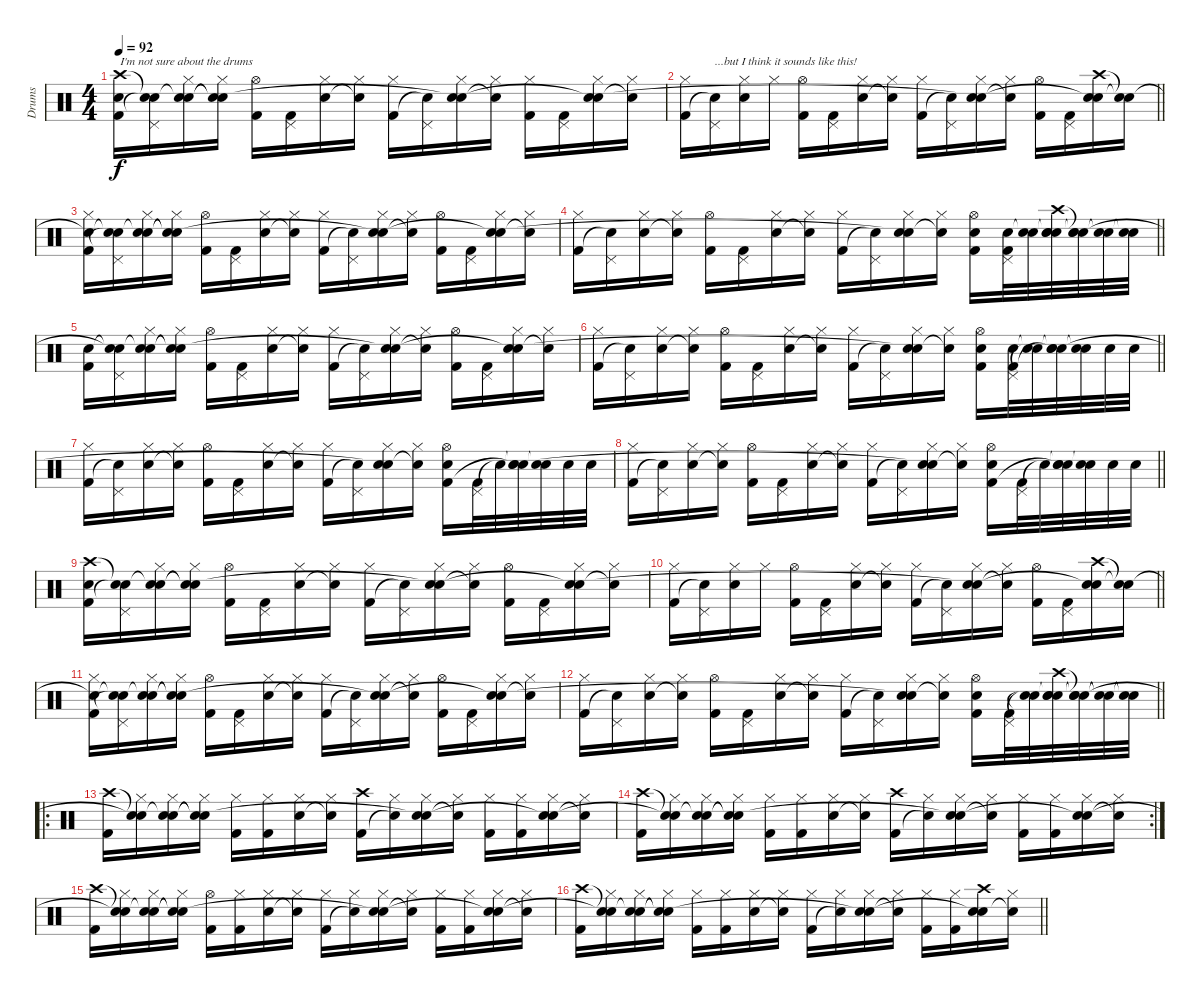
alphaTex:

\track ("Drums" "Drums") {instrument percussion}
\staff {score}
\articulation defaults
\ts (4 4)
\tempo 92
\clef neutral
\ks c
("Crash high (hit)" "Electric Snare (hit)" "Kick (hit) 2").16{txt "I'm not sure about the drums" dy f} ("Snare (hit)"{t} "Pedal Hi-Hat (hit)" "Snare (hit)"{t}).16 ("Snare (hit)"{t} "Hi-Hat (closed)" "Electric Snare (hit)").16 ("Snare (hit)"{t} "Hi-Hat (closed)" "Snare (hit)"{t}).16 ("Hi-Hat (open)" "Kick (hit) 2").16 ("Pedal Hi-Hat (hit)" "Kick (hit) 2").16 ("Hi-Hat (closed)" "Electric Snare (hit)").16 ("Hi-Hat (closed)" "Snare (hit)"{t}).16 ("Hi-Hat (closed)" "Kick (hit) 2").16 ("Pedal Hi-Hat (hit)" "Snare (hit)"{t}).16 ("Hi-Hat (closed)" "Electric Snare (hit)" "Snare (hit)"{t}).16 ("Hi-Hat (closed)" "Snare (hit)"{t}).16 ("Hi-Hat (closed)" "Kick (hit) 2").16 ("Pedal Hi-Hat (hit)" "Kick (hit) 2").16 ("Hi-Hat (closed)" "Electric Snare (hit)" "Snare (hit)"{t}).16 ("Hi-Hat (closed)" "Snare (hit)"{t}).16 |
\barLineRight lightlight
("Hi-Hat (closed)" "Kick (hit) 2").16 ("Pedal Hi-Hat (hit)" "Snare (hit)"{t}).16{txt "...but I think it sounds like this!"} ("Hi-Hat (closed)" "Electric Snare (hit)").16 "Hi-Hat (closed)".16 ("Hi-Hat (open)" "Kick (hit) 2").16 ("Pedal Hi-Hat (hit)" "Kick (hit) 2").16 ("Hi-Hat (closed)" "Electric Snare (hit)").16 ("Hi-Hat (closed)" "Snare (hit)"{t}).16 ("Hi-Hat (closed)" "Kick (hit) 2").16 ("Pedal Hi-Hat (hit)" "Snare (hit)"{t}).16 ("Hi-Hat (closed)" "Electric Snare (hit)" "Snare (hit)"{t}).16 ("Hi-Hat (closed)" "Snare (hit)"{t}).16 ("Hi-Hat (open)" "Kick (hit) 2").16 ("Pedal Hi-Hat (hit)" "Kick (hit) 2").16 ("Crash high (hit)" "Electric Snare (hit)" "Snare (hit)"{t}).16 ("Snare (hit)"{t} "Snare (hit)"{t}).16 |
("Snare (hit)"{t} "Hi-Hat (closed)" "Kick (hit) 2").16 ("Snare (hit)"{t} "Pedal Hi-Hat (hit)" "Snare (hit)"{t}).16 ("Snare (hit)"{t} "Hi-Hat (closed)" "Electric Snare (hit)").16 ("Snare (hit)"{t} "Hi-Hat (closed)" "Snare (hit)"{t}).16 ("Hi-Hat (open)" "Kick (hit) 2").16 ("Pedal Hi-Hat (hit)" "Kick (hit) 2").16 ("Hi-Hat (closed)" "Electric Snare (hit)").16 ("Hi-Hat (closed)" "Snare (hit)"{t}).16 ("Hi-Hat (closed)" "Kick (hit) 2").16 ("Pedal Hi-Hat (hit)" "Snare (hit)"{t}).16 ("Hi-Hat (closed)" "Electric Snare (hit)" "Snare (hit)"{t}).16 ("Hi-Hat (closed)" "Snare (hit)"{t}).16 ("Hi-Hat (open)" "Kick (hit) 2").16 ("Pedal Hi-Hat (hit)" "Kick (hit) 2").16 ("Hi-Hat (closed)" "Electric Snare (hit)" "Snare (hit)"{t}).16 ("Hi-Hat (closed)" "Snare (hit)"{t}).16 |
\barLineRight lightlight
("Hi-Hat (closed)" "Kick (hit) 2").16 ("Pedal Hi-Hat (hit)" "Snare (hit)"{t}).16 ("Hi-Hat (closed)" "Electric Snare (hit)").16 ("Hi-Hat (closed)" "Snare (hit)"{t}).16 ("Hi-Hat (open)" "Kick (hit) 2").16 ("Pedal Hi-Hat (hit)" "Kick (hit) 2").16 ("Hi-Hat (closed)" "Electric Snare (hit)").16 ("Hi-Hat (closed)" "Snare (hit)"{t}).16 ("Hi-Hat (closed)" "Kick (hit) 2").16 ("Pedal Hi-Hat (hit)" "Snare (hit)"{t}).16 ("Hi-Hat (closed)" "Electric Snare (hit)" "Snare (hit)"{t}).16 ("Hi-Hat (closed)" "Snare (hit)"{t}).16 ("Hi-Hat (open)" "Electric Snare (hit)" "Kick (hit) 2").16 ("Pedal Hi-Hat (hit)" "Electric Snare (hit)" "Kick (hit) 2").32 ("Electric Snare (hit)" "Snare (hit)"{t}).32 ("Crash high (hit)" "Snare (hit)"{t} "Electric Snare (hit)" "Snare (hit)").32 ("Snare (hit)"{t} "Electric Snare (hit)" "Snare (hit)"{t}).32 ("Snare (hit)"{t} "Electric Snare (hit)").32 ("Snare (hit)"{t} "Electric Snare (hit)").32 |
("Electric Snare (hit)" "Kick (hit) 2").16 ("Snare (hit)"{t} "Pedal Hi-Hat (hit)" "Snare (hit)"{t}).16 ("Snare (hit)"{t} "Hi-Hat (closed)" "Electric Snare (hit)").16 ("Snare (hit)"{t} "Hi-Hat (closed)" "Snare (hit)"{t}).16 ("Hi-Hat (open)" "Kick (hit) 2").16 ("Pedal Hi-Hat (hit)" "Kick (hit) 2").16 ("Hi-Hat (closed)" "Electric Snare (hit)").16 ("Hi-Hat (closed)" "Snare (hit)"{t}).16 ("Hi-Hat (closed)" "Kick (hit) 2").16 ("Pedal Hi-Hat (hit)" "Snare (hit)"{t}).16 ("Hi-Hat (closed)" "Electric Snare (hit)" "Snare (hit)"{t}).16 ("Hi-Hat (closed)" "Snare (hit)"{t}).16 ("Hi-Hat (open)" "Kick (hit) 2").16 ("Pedal Hi-Hat (hit)" "Kick (hit) 2").16 ("Hi-Hat (closed)" "Electric Snare (hit)" "Snare (hit)"{t}).16 ("Hi-Hat (closed)" "Snare (hit)"{t}).16 |
\barLineRight lightlight
("Hi-Hat (closed)" "Kick (hit) 2").16 ("Pedal Hi-Hat (hit)" "Snare (hit)"{t}).16 ("Hi-Hat (closed)" "Electric Snare (hit)").16 ("Hi-Hat (closed)" "Snare (hit)"{t}).16 ("Hi-Hat (open)" "Kick (hit) 2").16 ("Pedal Hi-Hat (hit)" "Kick (hit) 2").16 ("Hi-Hat (closed)" "Electric Snare (hit)").16 ("Hi-Hat (closed)" "Snare (hit)"{t}).16 ("Hi-Hat (closed)" "Kick (hit) 2").16 ("Pedal Hi-Hat (hit)" "Snare (hit)"{t}).16 ("Hi-Hat (closed)" "Electric Snare (hit)" "Snare (hit)"{t}).16 ("Hi-Hat (closed)" "Snare (hit)"{t}).16 ("Hi-Hat (open)" "Electric Snare (hit)" "Kick (hit) 2").16 ("Pedal Hi-Hat (hit)" "Electric Snare (hit)" "Kick (hit) 2").32 ("Electric Snare (hit)"{t} "Snare (hit)"{t}).32 ("Snare (hit)"{t} "Electric Snare (hit)" "Snare (hit)"{t}).32 ("Electric Snare (hit)" "Snare (hit)"{t}).32 "Electric Snare (hit)".32 "Electric Snare (hit)".32 |
("Hi-Hat (closed)" "Kick (hit) 2").16 ("Pedal Hi-Hat (hit)" "Snare (hit)"{t}).16 ("Hi-Hat (closed)" "Electric Snare (hit)").16 ("Hi-Hat (closed)" "Snare (hit)"{t}).16 ("Hi-Hat (open)" "Kick (hit) 2").16 ("Pedal Hi-Hat (hit)" "Kick (hit) 2").16 ("Hi-Hat (closed)" "Electric Snare (hit)").16 ("Hi-Hat (closed)" "Snare (hit)"{t}).16 ("Hi-Hat (closed)" "Kick (hit) 2").16 ("Pedal Hi-Hat (hit)" "Snare (hit)"{t}).16 ("Hi-Hat (closed)" "Electric Snare (hit)" "Snare (hit)"{t}).16 ("Hi-Hat (closed)" "Snare (hit)"{t}).16 ("Hi-Hat (open)" "Electric Snare (hit)" "Kick (hit) 2").16 ("Pedal Hi-Hat (hit)" "Kick (hit) 2").32 "Snare (hit)"{t}.32 ("Snare (hit)"{t} "Electric Snare (hit)" "Snare (hit)"{t}).32 ("Electric Snare (hit)" "Snare (hit)"{t}).32 "Electric Snare (hit)".32 "Electric Snare (hit)".32 |
\barLineRight lightlight
("Hi-Hat (closed)" "Kick (hit) 2").16 ("Pedal Hi-Hat (hit)" "Snare (hit)"{t}).16 ("Hi-Hat (closed)" "Electric Snare (hit)").16 ("Hi-Hat (closed)" "Snare (hit)"{t}).16 ("Hi-Hat (open)" "Kick (hit) 2").16 ("Pedal Hi-Hat (hit)" "Kick (hit) 2").16 ("Hi-Hat (closed)" "Electric Snare (hit)").16 ("Hi-Hat (closed)" "Snare (hit)"{t}).16 ("Hi-Hat (closed)" "Kick (hit) 2").16 ("Pedal Hi-Hat (hit)" "Snare (hit)"{t}).16 ("Hi-Hat (closed)" "Electric Snare (hit)" "Snare (hit)"{t}).16 ("Hi-Hat (closed)" "Snare (hit)"{t}).16 ("Hi-Hat (open)" "Electric Snare (hit)" "Kick (hit) 2").16 ("Pedal Hi-Hat (hit)" "Kick (hit) 2").32 "Snare (hit)"{t}.32 ("Snare (hit)"{t} "Electric Snare (hit)" "Snare (hit)"{t}).32 ("Electric Snare (hit)" "Snare (hit)"{t}).32 "Electric Snare (hit)".32 "Electric Snare (hit)".32 |
("Crash high (hit)" "Electric Snare (hit)" "Kick (hit) 2").16 ("Snare (hit)"{t} "Pedal Hi-Hat (hit)" "Snare (hit)"{t}).16 ("Snare (hit)"{t} "Hi-Hat (closed)" "Electric Snare (hit)").16 ("Snare (hit)"{t} "Hi-Hat (closed)" "Snare (hit)"{t}).16 ("Hi-Hat (open)" "Kick (hit) 2").16 ("Pedal Hi-Hat (hit)" "Kick (hit) 2").16 ("Hi-Hat (closed)" "Electric Snare (hit)").16 ("Hi-Hat (closed)" "Snare (hit)"{t}).16 ("Hi-Hat (closed)" "Kick (hit) 2").16 ("Pedal Hi-Hat (hit)" "Snare (hit)"{t}).16 ("Hi-Hat (closed)" "Electric Snare (hit)" "Snare (hit)"{t}).16 ("Hi-Hat (closed)" "Snare (hit)"{t}).16 ("Hi-Hat (open)" "Kick (hit) 2").16 ("Pedal Hi-Hat (hit)" "Kick (hit) 2").16 ("Hi-Hat (closed)" "Electric Snare (hit)" "Snare (hit)"{t}).16 ("Hi-Hat (closed)" "Snare (hit)"{t}).16 |
\barLineRight lightlight
("Hi-Hat (closed)" "Kick (hit) 2").16 ("Pedal Hi-Hat (hit)" "Snare (hit)"{t}).16 ("Hi-Hat (closed)" "Electric Snare (hit)").16 "Hi-Hat (closed)".16 ("Hi-Hat (open)" "Kick (hit) 2").16 ("Pedal Hi-Hat (hit)" "Kick (hit) 2").16 ("Hi-Hat (closed)" "Electric Snare (hit)").16 ("Hi-Hat (closed)" "Snare (hit)"{t}).16 ("Hi-Hat (closed)" "Kick (hit) 2").16 ("Pedal Hi-Hat (hit)" "Snare (hit)"{t}).16 ("Hi-Hat (closed)" "Electric Snare (hit)" "Snare (hit)"{t}).16 ("Hi-Hat (closed)" "Snare (hit)"{t}).16 ("Hi-Hat (open)" "Kick (hit) 2").16 ("Pedal Hi-Hat (hit)" "Kick (hit) 2").16 ("Crash high (hit)" "Electric Snare (hit)" "Snare (hit)"{t}).16 ("Snare (hit)"{t} "Snare (hit)"{t}).16 |
("Snare (hit)"{t} "Hi-Hat (closed)" "Kick (hit) 2").16 ("Snare (hit)"{t} "Pedal Hi-Hat (hit)" "Snare (hit)"{t}).16 ("Snare (hit)"{t} "Hi-Hat (closed)" "Electric Snare (hit)").16 ("Snare (hit)"{t} "Hi-Hat (closed)" "Snare (hit)"{t}).16 ("Hi-Hat (open)" "Kick (hit) 2").16 ("Pedal Hi-Hat (hit)" "Kick (hit) 2").16 ("Hi-Hat (closed)" "Electric Snare (hit)").16 ("Hi-Hat (closed)" "Snare (hit)"{t}).16 ("Hi-Hat (closed)" "Kick (hit) 2").16 ("Pedal Hi-Hat (hit)" "Snare (hit)"{t}).16 ("Hi-Hat (closed)" "Electric Snare (hit)" "Snare (hit)"{t}).16 ("Hi-Hat (closed)" "Snare (hit)"{t}).16 ("Hi-Hat (open)" "Kick (hit) 2").16 ("Pedal Hi-Hat (hit)" "Kick (hit) 2").16 ("Hi-Hat (closed)" "Electric Snare (hit)" "Snare (hit)"{t}).16 ("Hi-Hat (closed)" "Snare (hit)"{t}).16 |
\barLineRight lightlight
("Hi-Hat (closed)" "Kick (hit) 2").16 ("Pedal Hi-Hat (hit)" "Snare (hit)"{t}).16 ("Hi-Hat (closed)" "Electric Snare (hit)").16 ("Hi-Hat (closed)" "Snare (hit)"{t}).16 ("Hi-Hat (open)" "Kick (hit) 2").16 ("Pedal Hi-Hat (hit)" "Kick (hit) 2").16 ("Hi-Hat (closed)" "Electric Snare (hit)").16 ("Hi-Hat (closed)" "Snare (hit)"{t}).16 ("Hi-Hat (closed)" "Kick (hit) 2").16 ("Pedal Hi-Hat (hit)" "Snare (hit)"{t}).16 ("Hi-Hat (closed)" "Electric Snare (hit)" "Snare (hit)"{t}).16 ("Hi-Hat (closed)" "Snare (hit)"{t}).16 ("Hi-Hat (open)" "Electric Snare (hit)" "Kick (hit) 2").16 ("Pedal Hi-Hat (hit)" "Kick (hit) 2").32 ("Electric Snare (hit)"{t} "Snare (hit)"{t}).32 ("Crash high (hit)" "Snare (hit)"{t} "Electric Snare (hit)" "Snare (hit)").32 ("Snare (hit)"{t} "Electric Snare (hit)"{t} "Snare (hit)"{t}).32 ("Snare (hit)"{t} "Electric Snare (hit)"{t}).32 ("Snare (hit)"{t} "Electric Snare (hit)"{t}).32 |
\ro
("Crash high (hit)" "Kick (hit) 2").16 ("Snare (hit)"{t} "Hi-Hat (closed)" "Snare (hit)"{t}).16 ("Snare (hit)"{t} "Hi-Hat (closed)" "Electric Snare (hit)").16 ("Snare (hit)"{t} "Hi-Hat (closed)" "Snare (hit)"{t}).16 ("Hi-Hat (closed)" "Kick (hit) 2").16 ("Hi-Hat (closed)" "Kick (hit) 2").16 ("Hi-Hat (closed)" "Electric Snare (hit)").16 ("Hi-Hat (closed)" "Snare (hit)"{t}).16 ("Crash high (hit)" "Kick (hit) 2").16 ("Hi-Hat (closed)" "Snare (hit)"{t}).16 ("Hi-Hat (closed)" "Electric Snare (hit)" "Snare (hit)"{t}).16 ("Hi-Hat (closed)" "Snare (hit)"{t}).16 ("Hi-Hat (closed)" "Kick (hit) 2").16 ("Hi-Hat (closed)" "Kick (hit) 2").16 ("Hi-Hat (closed)" "Electric Snare (hit)" "Snare (hit)"{t}).16 ("Hi-Hat (closed)" "Snare (hit)"{t}).16 |
\rc 2
("Crash high (hit)" "Kick (hit) 2").16 ("Snare (hit)"{t} "Hi-Hat (closed)" "Snare (hit)"{t}).16 ("Snare (hit)"{t} "Hi-Hat (closed)" "Electric Snare (hit)").16 ("Snare (hit)"{t} "Hi-Hat (closed)" "Snare (hit)"{t}).16 ("Hi-Hat (closed)" "Kick (hit) 2").16 ("Hi-Hat (closed)" "Kick (hit) 2").16 ("Hi-Hat (closed)" "Electric Snare (hit)").16 ("Hi-Hat (closed)" "Snare (hit)"{t}).16 ("Crash high (hit)" "Kick (hit) 2").16 ("Hi-Hat (closed)" "Snare (hit)"{t}).16 ("Hi-Hat (closed)" "Electric Snare (hit)" "Snare (hit)"{t}).16 ("Hi-Hat (closed)" "Snare (hit)"{t}).16 ("Hi-Hat (closed)" "Kick (hit) 2").16 ("Hi-Hat (closed)" "Kick (hit) 2").16 ("Hi-Hat (closed)" "Electric Snare (hit)" "Snare (hit)"{t}).16 ("Hi-Hat (closed)" "Snare (hit)"{t}).16 |
("Crash high (hit)" "Kick (hit) 2").16 ("Snare (hit)"{t} "Hi-Hat (closed)" "Snare (hit)"{t}).16 ("Snare (hit)"{t} "Hi-Hat (closed)" "Electric Snare (hit)").16 ("Snare (hit)"{t} "Hi-Hat (closed)" "Snare (hit)"{t}).16 ("Hi-Hat (open)" "Kick (hit) 2").16 ("Hi-Hat (closed)" "Kick (hit) 2").16 ("Hi-Hat (closed)" "Electric Snare (hit)").16 ("Hi-Hat (closed)" "Snare (hit)"{t}).16 ("Hi-Hat (closed)" "Kick (hit) 2").16 ("Hi-Hat (closed)" "Snare (hit)"{t}).16 ("Hi-Hat (closed)" "Electric Snare (hit)" "Snare (hit)"{t}).16 ("Hi-Hat (closed)" "Snare (hit)"{t}).16 ("Hi-Hat (closed)" "Kick (hit) 2").16 ("Hi-Hat (closed)" "Kick (hit) 2").16 ("Hi-Hat (closed)" "Electric Snare (hit)" "Snare (hit)"{t}).16 ("Hi-Hat (closed)" "Snare (hit)"{t}).16 |
\barLineRight lightlight
("Crash high (hit)" "Kick (hit) 2").16 ("Snare (hit)"{t} "Hi-Hat (closed)" "Snare (hit)"{t}).16 ("Snare (hit)"{t} "Hi-Hat (closed)" "Electric Snare (hit)").16 ("Snare (hit)"{t} "Hi-Hat (closed)" "Snare (hit)"{t}).16 ("Hi-Hat (closed)" "Kick (hit) 2").16 ("Hi-Hat (closed)" "Kick (hit) 2").16 ("Hi-Hat (closed)" "Electric Snare (hit)").16 ("Hi-Hat (closed)" "Snare (hit)"{t}).16 ("Hi-Hat (closed)" "Kick (hit) 2").16 ("Hi-Hat (closed)" "Snare (hit)"{t}).16 ("Hi-Hat (closed)" "Electric Snare (hit)" "Snare (hit)"{t}).16 ("Hi-Hat (closed)" "Snare (hit)"{t}).16 ("Hi-Hat (closed)" "Kick (hit) 2").16 ("Hi-Hat (closed)" "Kick (hit) 2").16 ("Crash high (hit)" "Electric Snare (hit)" "Snare (hit)"{t}).16 ("Hi-Hat (closed)" "Snare (hit)"{t}).16
